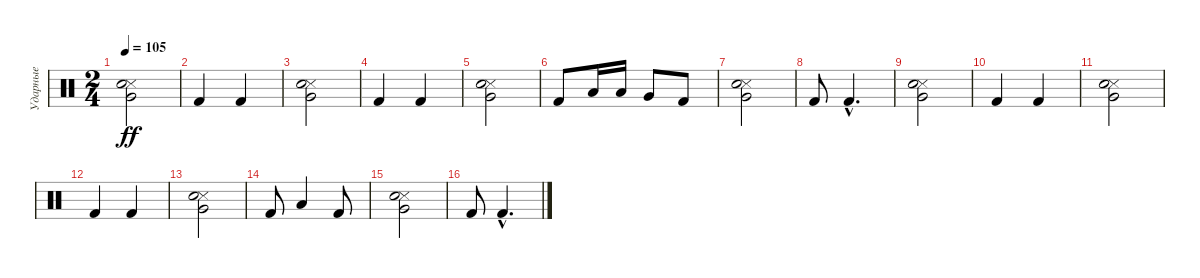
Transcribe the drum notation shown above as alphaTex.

\track ("Ударные" "Ударные") {instrument percussion}
\staff {score}
\articulation defaults
\ts (2 4)
\tempo 105
\clef neutral
\ks c
("Metronome (hit)" "Very Low Tom (hit)" "Snare (hit) 2").2{dy ff} |
"Kick (hit) 2".4 "Kick (hit) 2".4 |
("Metronome (hit)" "Very Low Tom (hit)" "Snare (hit) 2").2 |
"Kick (hit) 2".4 "Kick (hit) 2".4 |
("Metronome (hit)" "Very Low Tom (hit)" "Snare (hit) 2").2 |
"Kick (hit) 2".8 "Low Tom (hit)".16 "Low Tom (hit)".16 "Very Low Tom (hit)".8 "Kick (hit) 2".8 |
("Metronome (hit)" "Very Low Tom (hit)" "Snare (hit) 2").2 |
"Kick (hit) 2".8 "Kick (hit) 2"{hac}.4{d} |
("Metronome (hit)" "Very Low Tom (hit)" "Snare (hit) 2").2 |
"Kick (hit) 2".4 "Kick (hit) 2".4 |
("Metronome (hit)" "Very Low Tom (hit)" "Snare (hit) 2").2 |
"Kick (hit) 2".4 "Kick (hit) 2".4 |
("Metronome (hit)" "Very Low Tom (hit)" "Snare (hit) 2").2 |
"Kick (hit) 2".8 "Low Tom (hit)".4 "Kick (hit) 2".8 |
("Metronome (hit)" "Very Low Tom (hit)" "Snare (hit) 2").2 |
"Kick (hit) 2".8 "Kick (hit) 2"{hac}.4{d}
